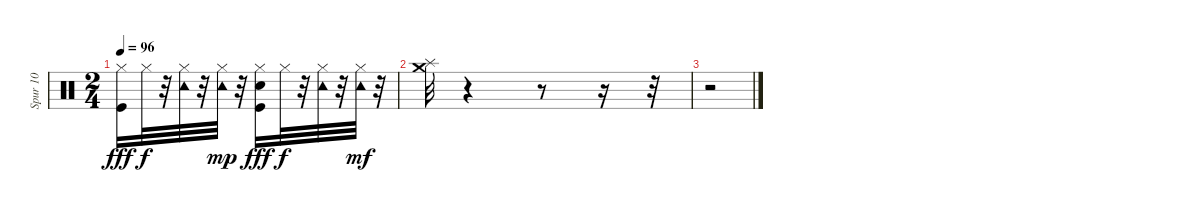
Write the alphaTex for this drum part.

\track ("Spur 10" "Spur 10") {instrument percussion}
\staff {score}
\articulation defaults
\ts (2 4)
\tempo 96
\clef neutral
\ks c
("Kick (hit)" "Hi-Hat (closed)").16{dy fff} "Hi-Hat (closed)".32{dy f} r.32 ("Hi-Hat (closed)" "Tambourine (hit)").32 r.32 ("Hi-Hat (closed)" "Tambourine (hit)").32{dy mp} r.32 ("Snare (hit) 2" "Kick (hit)" "Hi-Hat (closed)").16{dy fff} "Hi-Hat (closed)".32{dy f} r.32 ("Hi-Hat (closed)" "Tambourine (hit)").32 r.32 ("Hi-Hat (closed)" "Tambourine (hit)").32{dy mf} r.32 |
("Splash (hit)" "Crash medium (hit)").32 r.4 r.8 r.16 r.32 |
r.2
